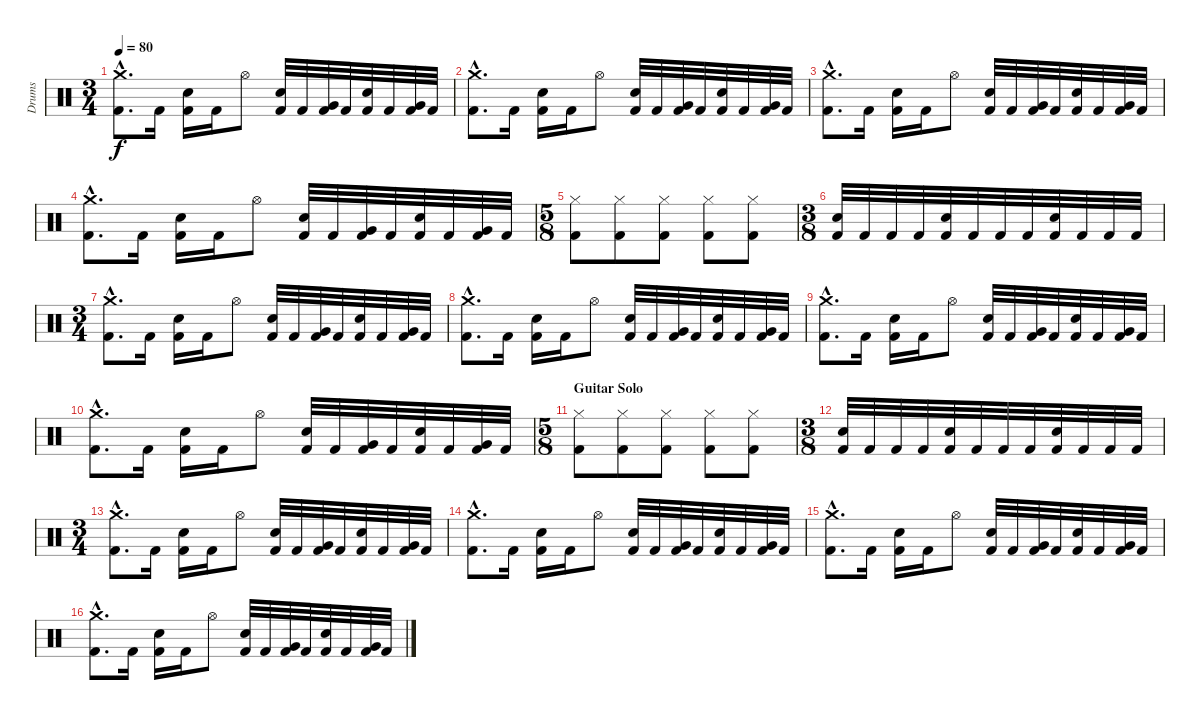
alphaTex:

\track ("Drums" "Drums") {instrument percussion}
\staff {score}
\articulation defaults
\ts (3 4)
\tempo 80
\clef neutral
\ks c
("Crash medium (hit)"{hac} "Kick (hit) 2"{hac}).8{d dy f} "Kick (hit) 2".16 ("Snare (hit) 2" "Kick (hit) 2").16 "Kick (hit) 2".16 "Hi-Hat (open)".8 ("Snare (hit) 2" "Kick (hit) 2").32 "Kick (hit) 2".32 ("Very Low Tom (hit)" "Kick (hit) 2").32 "Kick (hit) 2".32 ("Snare (hit) 2" "Kick (hit) 2").32 "Kick (hit) 2".32 ("Very Low Tom (hit)" "Kick (hit) 2").32 "Kick (hit) 2".32 |
("Crash medium (hit)"{hac} "Kick (hit) 2"{hac}).8{d} "Kick (hit) 2".16 ("Snare (hit) 2" "Kick (hit) 2").16 "Kick (hit) 2".16 "Hi-Hat (open)".8 ("Snare (hit) 2" "Kick (hit) 2").32 "Kick (hit) 2".32 ("Very Low Tom (hit)" "Kick (hit) 2").32 "Kick (hit) 2".32 ("Snare (hit) 2" "Kick (hit) 2").32 "Kick (hit) 2".32 ("Very Low Tom (hit)" "Kick (hit) 2").32 "Kick (hit) 2".32 |
("Crash medium (hit)"{hac} "Kick (hit) 2"{hac}).8{d} "Kick (hit) 2".16 ("Snare (hit) 2" "Kick (hit) 2").16 "Kick (hit) 2".16 "Hi-Hat (open)".8 ("Snare (hit) 2" "Kick (hit) 2").32 "Kick (hit) 2".32 ("Very Low Tom (hit)" "Kick (hit) 2").32 "Kick (hit) 2".32 ("Snare (hit) 2" "Kick (hit) 2").32 "Kick (hit) 2".32 ("Very Low Tom (hit)" "Kick (hit) 2").32 "Kick (hit) 2".32 |
("Crash medium (hit)"{hac} "Kick (hit) 2"{hac}).8{d} "Kick (hit) 2".16 ("Snare (hit) 2" "Kick (hit) 2").16 "Kick (hit) 2".16 "Hi-Hat (open)".8 ("Snare (hit) 2" "Kick (hit) 2").32 "Kick (hit) 2".32 ("Very Low Tom (hit)" "Kick (hit) 2").32 "Kick (hit) 2".32 ("Snare (hit) 2" "Kick (hit) 2").32 "Kick (hit) 2".32 ("Very Low Tom (hit)" "Kick (hit) 2").32 "Kick (hit) 2".32 |
\ts (5 8)
("Hi-Hat (closed)" "Kick (hit) 2").8 ("Hi-Hat (closed)" "Kick (hit) 2").8 ("Hi-Hat (closed)" "Kick (hit) 2").8 ("Hi-Hat (closed)" "Kick (hit) 2").8 ("Hi-Hat (closed)" "Kick (hit) 2").8 |
\ts (3 8)
("Snare (hit) 2" "Kick (hit) 2").32 "Kick (hit) 2".32 "Kick (hit) 2".32 "Kick (hit) 2".32 ("Snare (hit) 2" "Kick (hit) 2").32 "Kick (hit) 2".32 "Kick (hit) 2".32 "Kick (hit) 2".32 ("Snare (hit) 2" "Kick (hit) 2").32 "Kick (hit) 2".32 "Kick (hit) 2".32 "Kick (hit) 2".32 |
\ts (3 4)
("Crash medium (hit)"{hac} "Kick (hit) 2"{hac}).8{d} "Kick (hit) 2".16 ("Snare (hit) 2" "Kick (hit) 2").16 "Kick (hit) 2".16 "Hi-Hat (open)".8 ("Snare (hit) 2" "Kick (hit) 2").32 "Kick (hit) 2".32 ("Very Low Tom (hit)" "Kick (hit) 2").32 "Kick (hit) 2".32 ("Snare (hit) 2" "Kick (hit) 2").32 "Kick (hit) 2".32 ("Very Low Tom (hit)" "Kick (hit) 2").32 "Kick (hit) 2".32 |
("Crash medium (hit)"{hac} "Kick (hit) 2"{hac}).8{d} "Kick (hit) 2".16 ("Snare (hit) 2" "Kick (hit) 2").16 "Kick (hit) 2".16 "Hi-Hat (open)".8 ("Snare (hit) 2" "Kick (hit) 2").32 "Kick (hit) 2".32 ("Very Low Tom (hit)" "Kick (hit) 2").32 "Kick (hit) 2".32 ("Snare (hit) 2" "Kick (hit) 2").32 "Kick (hit) 2".32 ("Very Low Tom (hit)" "Kick (hit) 2").32 "Kick (hit) 2".32 |
("Crash medium (hit)"{hac} "Kick (hit) 2"{hac}).8{d} "Kick (hit) 2".16 ("Snare (hit) 2" "Kick (hit) 2").16 "Kick (hit) 2".16 "Hi-Hat (open)".8 ("Snare (hit) 2" "Kick (hit) 2").32 "Kick (hit) 2".32 ("Very Low Tom (hit)" "Kick (hit) 2").32 "Kick (hit) 2".32 ("Snare (hit) 2" "Kick (hit) 2").32 "Kick (hit) 2".32 ("Very Low Tom (hit)" "Kick (hit) 2").32 "Kick (hit) 2".32 |
("Crash medium (hit)"{hac} "Kick (hit) 2"{hac}).8{d} "Kick (hit) 2".16 ("Snare (hit) 2" "Kick (hit) 2").16 "Kick (hit) 2".16 "Hi-Hat (open)".8 ("Snare (hit) 2" "Kick (hit) 2").32 "Kick (hit) 2".32 ("Very Low Tom (hit)" "Kick (hit) 2").32 "Kick (hit) 2".32 ("Snare (hit) 2" "Kick (hit) 2").32 "Kick (hit) 2".32 ("Very Low Tom (hit)" "Kick (hit) 2").32 "Kick (hit) 2".32 |
\ts (5 8)
\section ("" "Guitar Solo")
("Hi-Hat (closed)" "Kick (hit) 2").8 ("Hi-Hat (closed)" "Kick (hit) 2").8 ("Hi-Hat (closed)" "Kick (hit) 2").8 ("Hi-Hat (closed)" "Kick (hit) 2").8 ("Hi-Hat (closed)" "Kick (hit) 2").8 |
\ts (3 8)
("Snare (hit) 2" "Kick (hit) 2").32 "Kick (hit) 2".32 "Kick (hit) 2".32 "Kick (hit) 2".32 ("Snare (hit) 2" "Kick (hit) 2").32 "Kick (hit) 2".32 "Kick (hit) 2".32 "Kick (hit) 2".32 ("Snare (hit) 2" "Kick (hit) 2").32 "Kick (hit) 2".32 "Kick (hit) 2".32 "Kick (hit) 2".32 |
\ts (3 4)
("Crash medium (hit)"{hac} "Kick (hit) 2"{hac}).8{d} "Kick (hit) 2".16 ("Snare (hit) 2" "Kick (hit) 2").16 "Kick (hit) 2".16 "Hi-Hat (open)".8 ("Snare (hit) 2" "Kick (hit) 2").32 "Kick (hit) 2".32 ("Very Low Tom (hit)" "Kick (hit) 2").32 "Kick (hit) 2".32 ("Snare (hit) 2" "Kick (hit) 2").32 "Kick (hit) 2".32 ("Very Low Tom (hit)" "Kick (hit) 2").32 "Kick (hit) 2".32 |
("Crash medium (hit)"{hac} "Kick (hit) 2"{hac}).8{d} "Kick (hit) 2".16 ("Snare (hit) 2" "Kick (hit) 2").16 "Kick (hit) 2".16 "Hi-Hat (open)".8 ("Snare (hit) 2" "Kick (hit) 2").32 "Kick (hit) 2".32 ("Very Low Tom (hit)" "Kick (hit) 2").32 "Kick (hit) 2".32 ("Snare (hit) 2" "Kick (hit) 2").32 "Kick (hit) 2".32 ("Very Low Tom (hit)" "Kick (hit) 2").32 "Kick (hit) 2".32 |
("Crash medium (hit)"{hac} "Kick (hit) 2"{hac}).8{d} "Kick (hit) 2".16 ("Snare (hit) 2" "Kick (hit) 2").16 "Kick (hit) 2".16 "Hi-Hat (open)".8 ("Snare (hit) 2" "Kick (hit) 2").32 "Kick (hit) 2".32 ("Very Low Tom (hit)" "Kick (hit) 2").32 "Kick (hit) 2".32 ("Snare (hit) 2" "Kick (hit) 2").32 "Kick (hit) 2".32 ("Very Low Tom (hit)" "Kick (hit) 2").32 "Kick (hit) 2".32 |
("Crash medium (hit)"{hac} "Kick (hit) 2"{hac}).8{d} "Kick (hit) 2".16 ("Snare (hit) 2" "Kick (hit) 2").16 "Kick (hit) 2".16 "Hi-Hat (open)".8 ("Snare (hit) 2" "Kick (hit) 2").32 "Kick (hit) 2".32 ("Very Low Tom (hit)" "Kick (hit) 2").32 "Kick (hit) 2".32 ("Snare (hit) 2" "Kick (hit) 2").32 "Kick (hit) 2".32 ("Very Low Tom (hit)" "Kick (hit) 2").32 "Kick (hit) 2".32
